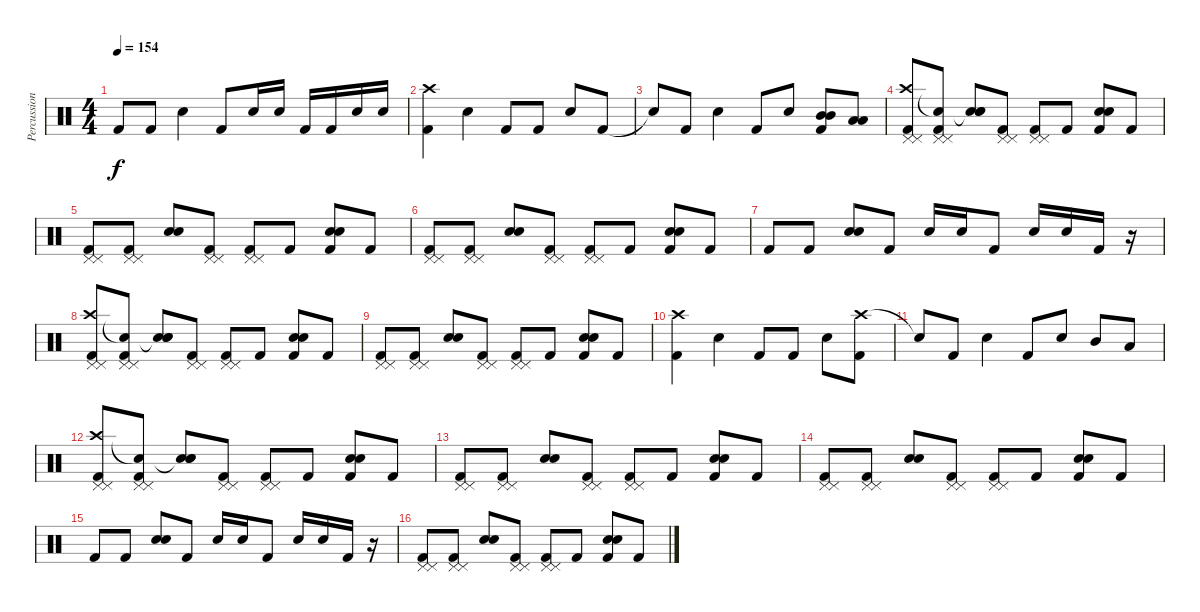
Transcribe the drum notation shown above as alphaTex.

\track ("Percussion" "Percussion") {instrument percussion}
\staff {score}
\articulation defaults
\ts (4 4)
\tempo 154
\clef neutral
\ks c "Kick (hit) 2"{t}.8{dy f} "Kick (hit) 2".8 "Electric Snare (hit)".4 "Kick (hit) 2".8 "Electric Snare (hit)".16 "Electric Snare (hit)".16 "Kick (hit) 2".16 "Kick (hit) 2".16 "Electric Snare (hit)".16 "Electric Snare (hit)".16
|
("Crash high (hit)" "Kick (hit) 2").4 "Electric Snare (hit)".4 "Kick (hit) 2".8 "Kick (hit) 2".8 "Electric Snare (hit)".8 "Kick (hit) 2".8 |
"Snare (hit)"{t}.8 "Kick (hit) 2".8 "Electric Snare (hit)".4 "Kick (hit) 2".8 "Electric Snare (hit)".8 ("Mid Tom (hit)" "Mid Tom (hit)" "Kick (hit) 2").8 ("Low Tom (hit)" "Low Tom (hit)").8 |
("Pedal Hi-Hat (hit)" "Pedal Hi-Hat (hit)" "Crash high (hit)" "Kick (hit) 2").8 ("Pedal Hi-Hat (hit)" "Pedal Hi-Hat (hit)" "Snare (hit)"{t} "Kick (hit) 2").8 ("Electric Snare (hit)" "Electric Snare (hit)" "Snare (hit)"{t}).8 ("Pedal Hi-Hat (hit)" "Pedal Hi-Hat (hit)" "Kick (hit) 2").8 ("Pedal Hi-Hat (hit)" "Pedal Hi-Hat (hit)" "Kick (hit) 2").8 "Kick (hit) 2".8 ("Electric Snare (hit)" "Electric Snare (hit)" "Kick (hit) 2").8 "Kick (hit) 2".8 |
("Pedal Hi-Hat (hit)" "Pedal Hi-Hat (hit)" "Kick (hit) 2").8 ("Pedal Hi-Hat (hit)" "Pedal Hi-Hat (hit)" "Kick (hit) 2").8 ("Electric Snare (hit)" "Electric Snare (hit)").8 ("Pedal Hi-Hat (hit)" "Pedal Hi-Hat (hit)" "Kick (hit) 2").8 ("Pedal Hi-Hat (hit)" "Pedal Hi-Hat (hit)" "Kick (hit) 2").8 "Kick (hit) 2".8 ("Electric Snare (hit)" "Electric Snare (hit)" "Kick (hit) 2").8 "Kick (hit) 2".8 |
("Pedal Hi-Hat (hit)" "Pedal Hi-Hat (hit)" "Kick (hit) 2").8 ("Pedal Hi-Hat (hit)" "Pedal Hi-Hat (hit)" "Kick (hit) 2").8 ("Electric Snare (hit)" "Electric Snare (hit)").8 ("Pedal Hi-Hat (hit)" "Pedal Hi-Hat (hit)" "Kick (hit) 2").8 ("Pedal Hi-Hat (hit)" "Pedal Hi-Hat (hit)" "Kick (hit) 2").8 "Kick (hit) 2".8 ("Electric Snare (hit)" "Electric Snare (hit)" "Kick (hit) 2").8 "Kick (hit) 2".8 |
"Kick (hit) 2".8 "Kick (hit) 2".8 ("Electric Snare (hit)" "Electric Snare (hit)").8 "Kick (hit) 2".8 "Electric Snare (hit)".16 "Electric Snare (hit)".16 "Kick (hit) 2".8 "Electric Snare (hit)".16 "Electric Snare (hit)".16 "Kick (hit) 2".16 r.16 |
("Pedal Hi-Hat (hit)" "Pedal Hi-Hat (hit)" "Crash high (hit)" "Kick (hit) 2").8 ("Pedal Hi-Hat (hit)" "Pedal Hi-Hat (hit)" "Snare (hit)"{t} "Kick (hit) 2").8 ("Electric Snare (hit)" "Electric Snare (hit)" "Snare (hit)"{t}).8 ("Pedal Hi-Hat (hit)" "Pedal Hi-Hat (hit)" "Kick (hit) 2").8 ("Pedal Hi-Hat (hit)" "Pedal Hi-Hat (hit)" "Kick (hit) 2").8 "Kick (hit) 2".8 ("Electric Snare (hit)" "Electric Snare (hit)" "Kick (hit) 2").8 "Kick (hit) 2".8 |
("Pedal Hi-Hat (hit)" "Pedal Hi-Hat (hit)" "Kick (hit) 2").8 ("Pedal Hi-Hat (hit)" "Pedal Hi-Hat (hit)" "Kick (hit) 2").8 ("Electric Snare (hit)" "Electric Snare (hit)").8 ("Pedal Hi-Hat (hit)" "Pedal Hi-Hat (hit)" "Kick (hit) 2").8 ("Pedal Hi-Hat (hit)" "Pedal Hi-Hat (hit)" "Kick (hit) 2").8 "Kick (hit) 2".8 ("Electric Snare (hit)" "Electric Snare (hit)" "Kick (hit) 2").8 "Kick (hit) 2".8 |
("Crash high (hit)" "Kick (hit) 2").4 "Electric Snare (hit)".4 "Kick (hit) 2".8 "Kick (hit) 2".8 "Electric Snare (hit)".8 ("Crash high (hit)" "Kick (hit) 2").8 |
"Snare (hit)"{t}.8 "Kick (hit) 2".8 "Electric Snare (hit)".4 "Kick (hit) 2".8 "Electric Snare (hit)".8 "Mid Tom (hit)".8 "Low Tom (hit)".8 |
("Pedal Hi-Hat (hit)" "Pedal Hi-Hat (hit)" "Crash high (hit)" "Kick (hit) 2").8 ("Pedal Hi-Hat (hit)" "Pedal Hi-Hat (hit)" "Snare (hit)"{t} "Kick (hit) 2").8 ("Electric Snare (hit)" "Electric Snare (hit)" "Snare (hit)"{t}).8 ("Pedal Hi-Hat (hit)" "Pedal Hi-Hat (hit)" "Kick (hit) 2").8 ("Pedal Hi-Hat (hit)" "Pedal Hi-Hat (hit)" "Kick (hit) 2").8 "Kick (hit) 2".8 ("Electric Snare (hit)" "Electric Snare (hit)" "Kick (hit) 2").8 "Kick (hit) 2".8 |
("Pedal Hi-Hat (hit)" "Pedal Hi-Hat (hit)" "Kick (hit) 2").8 ("Pedal Hi-Hat (hit)" "Pedal Hi-Hat (hit)" "Kick (hit) 2").8 ("Electric Snare (hit)" "Electric Snare (hit)").8 ("Pedal Hi-Hat (hit)" "Pedal Hi-Hat (hit)" "Kick (hit) 2").8 ("Pedal Hi-Hat (hit)" "Pedal Hi-Hat (hit)" "Kick (hit) 2").8 "Kick (hit) 2".8 ("Electric Snare (hit)" "Electric Snare (hit)" "Kick (hit) 2").8 "Kick (hit) 2".8 |
("Pedal Hi-Hat (hit)" "Pedal Hi-Hat (hit)" "Kick (hit) 2").8 ("Pedal Hi-Hat (hit)" "Pedal Hi-Hat (hit)" "Kick (hit) 2").8 ("Electric Snare (hit)" "Electric Snare (hit)").8 ("Pedal Hi-Hat (hit)" "Pedal Hi-Hat (hit)" "Kick (hit) 2").8 ("Pedal Hi-Hat (hit)" "Pedal Hi-Hat (hit)" "Kick (hit) 2").8 "Kick (hit) 2".8 ("Electric Snare (hit)" "Electric Snare (hit)" "Kick (hit) 2").8 "Kick (hit) 2".8 |
"Kick (hit) 2".8 "Kick (hit) 2".8 ("Electric Snare (hit)" "Electric Snare (hit)").8 "Kick (hit) 2".8 "Electric Snare (hit)".16 "Electric Snare (hit)".16 "Kick (hit) 2".8 "Electric Snare (hit)".16 "Electric Snare (hit)".16 "Kick (hit) 2".16 r.16 |
("Pedal Hi-Hat (hit)" "Pedal Hi-Hat (hit)" "Kick (hit) 2").8 ("Pedal Hi-Hat (hit)" "Pedal Hi-Hat (hit)" "Kick (hit) 2").8 ("Electric Snare (hit)" "Electric Snare (hit)").8 ("Pedal Hi-Hat (hit)" "Pedal Hi-Hat (hit)" "Kick (hit) 2").8 ("Pedal Hi-Hat (hit)" "Pedal Hi-Hat (hit)" "Kick (hit) 2").8 "Kick (hit) 2".8 ("Electric Snare (hit)" "Electric Snare (hit)" "Kick (hit) 2").8 "Kick (hit) 2".8
